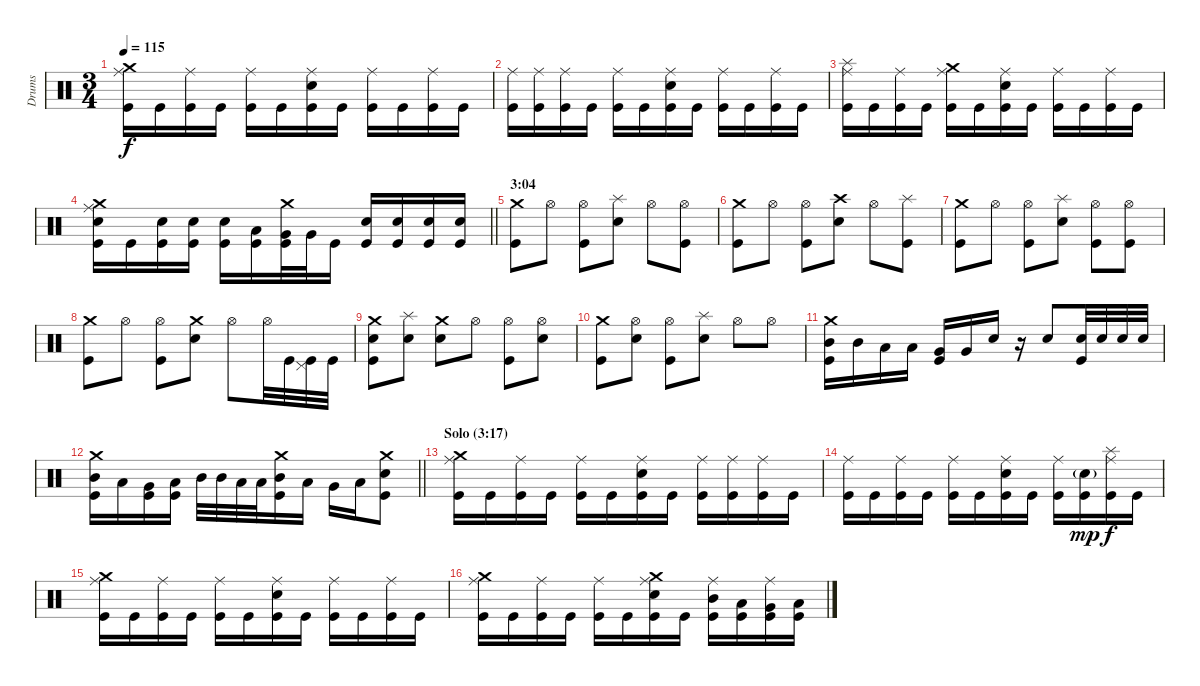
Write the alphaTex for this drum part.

\track ("Drums" "Drums") {instrument percussion}
\staff {score}
\articulation defaults
\ts (3 4)
\tempo 115
\clef neutral
\ks c
("Crash medium (hit)" "Ride (middle)" "Kick (hit)").16{dy f} "Kick (hit)".16 ("Ride (middle)" "Kick (hit)").16 "Kick (hit)".16 ("Ride (middle)" "Kick (hit)").16 "Kick (hit)".16 ("Ride (middle)" "Electric Snare (hit)" "Kick (hit)").16 "Kick (hit)".16 ("Ride (middle)" "Kick (hit)").16 "Kick (hit)".16 ("Ride (middle)" "Kick (hit)").16 "Kick (hit)".16 |
("Ride (middle)" "Kick (hit)").16 ("Ride (middle)" "Kick (hit)").16 ("Ride (middle)" "Kick (hit)").16 "Kick (hit)".16 ("Ride (middle)" "Kick (hit)").16 "Kick (hit)".16 ("Ride (middle)" "Electric Snare (hit)" "Kick (hit)").16 "Kick (hit)".16 ("Ride (middle)" "Kick (hit)").16 "Kick (hit)".16 ("Ride (middle)" "Kick (hit)").16 "Kick (hit)".16 |
("Splash (hit)" "Ride (middle)" "Kick (hit)").16 "Kick (hit)".16 ("Ride (middle)" "Kick (hit)").16 "Kick (hit)".16 ("Crash medium (hit)" "Ride (middle)" "Kick (hit)").16 "Kick (hit)".16 ("Ride (middle)" "Electric Snare (hit)" "Kick (hit)").16 "Kick (hit)".16 ("Ride (middle)" "Kick (hit)").16 "Kick (hit)".16 ("Ride (middle)" "Kick (hit)").16 "Kick (hit)".16 |
\barLineRight lightlight
("Crash medium (hit)" "Electric Snare (hit)" "Ride (middle)" "Kick (hit)").16 "Kick (hit)".16 ("Electric Snare (hit)" "Kick (hit)").16 ("Electric Snare (hit)" "Kick (hit)").16 ("Electric Snare (hit)" "Kick (hit)").16 ("Low Tom (hit)" "Kick (hit)").16 ("Crash medium (hit)" "Very Low Tom (hit)" "Kick (hit)").32 "Very Low Tom (hit)".32 "Kick (hit)".16 ("Electric Snare (hit)" "Kick (hit)").16 ("Electric Snare (hit)" "Kick (hit)").16 ("Electric Snare (hit)" "Kick (hit)").16 ("Electric Snare (hit)" "Kick (hit)").16 |
\section ("" "3:04")
("Crash medium (hit)" "Kick (hit)").8 "Hi-Hat (open)".8 ("Hi-Hat (open)" "Kick (hit)").8 ("Splash (hit)" "Electric Snare (hit)").8 "Hi-Hat (open)".8 ("Hi-Hat (open)" "Kick (hit)").8 |
("Crash medium (hit)" "Kick (hit)").8 "Hi-Hat (open)".8 ("Hi-Hat (open)" "Kick (hit)").8 ("Crash high (hit)" "Electric Snare (hit)").8 "Hi-Hat (open)".8 ("Splash (hit)" "Kick (hit)").8 |
("Crash medium (hit)" "Kick (hit)").8 "Hi-Hat (open)".8 ("Hi-Hat (open)" "Kick (hit)").8 ("Splash (hit)" "Electric Snare (hit)").8 ("Hi-Hat (open)" "Kick (hit)").8 ("Hi-Hat (open)" "Kick (hit)").8 |
("Crash medium (hit)" "Kick (hit)").8 "Hi-Hat (open)".8 ("Hi-Hat (open)" "Kick (hit)").8 ("Crash medium (hit)" "Electric Snare (hit)").8 "Hi-Hat (open)".8 "Hi-Hat (open)".32 "Kick (hit)".32 ("Pedal Hi-Hat (hit)" "Kick (hit)").32 "Kick (hit)".32 |
("Crash medium (hit)" "Electric Snare (hit)" "Kick (hit)").8 ("Splash (hit)" "Electric Snare (hit)").8 ("Crash medium (hit)" "Electric Snare (hit)").8 "Hi-Hat (open)".8 ("Hi-Hat (open)" "Kick (hit)").8 ("Hi-Hat (open)" "Electric Snare (hit)").8 |
("Crash medium (hit)" "Kick (hit)").8 ("Hi-Hat (open)" "Electric Snare (hit)").8 ("Hi-Hat (open)" "Kick (hit)").8 ("Splash (hit)" "Electric Snare (hit)").8 "Hi-Hat (open)".8 "Hi-Hat (open)".8 |
("Crash medium (hit)" "Mid Tom (hit)" "Kick (hit)").16 "Mid Tom (hit)".16 "Low Tom (hit)".16 "Low Tom (hit)".16 ("Very Low Tom (hit)" "Kick (hit)").16 "Very Low Tom (hit)".16 "Electric Snare (hit)".16 r.16 "Electric Snare (hit)".8 ("Electric Snare (hit)" "Kick (hit)").32 "Electric Snare (hit)".32 "Electric Snare (hit)".32 "Electric Snare (hit)".32 |
\barLineRight lightlight
("Crash medium (hit)" "Mid Tom (hit)" "Kick (hit)").16 "Low Tom (hit)".16 ("Very Low Tom (hit)" "Kick (hit)").16 ("Low Floor Tom (hit)" "Kick (hit)").16 "Mid Tom (hit)".32 "Mid Tom (hit)".32 "Low Tom (hit)".32 "Low Tom (hit)".32 ("Crash medium (hit)" "Mid Tom (hit)" "Kick (hit)").16 "Low Tom (hit)".16 "Very Low Tom (hit)".16 "Low Floor Tom (hit)".16 ("Crash medium (hit)" "Electric Snare (hit)" "Kick (hit)").8 |
\section ("" "Solo (3:17)")
("Crash medium (hit)" "Ride (middle)" "Kick (hit)").16 "Kick (hit)".16 ("Ride (middle)" "Kick (hit)").16 "Kick (hit)".16 ("Ride (middle)" "Kick (hit)").16 "Kick (hit)".16 ("Ride (middle)" "Electric Snare (hit)" "Kick (hit)").16 "Kick (hit)".16 ("Ride (middle)" "Kick (hit)").16 ("Ride (middle)" "Kick (hit)").16 ("Ride (middle)" "Kick (hit)").16 "Kick (hit)".16 |
("Ride (middle)" "Kick (hit)").16 "Kick (hit)".16 ("Ride (middle)" "Kick (hit)").16 "Kick (hit)".16 ("Ride (middle)" "Kick (hit)").16 "Kick (hit)".16 ("Ride (middle)" "Electric Snare (hit)" "Kick (hit)").16 "Kick (hit)".16 ("Ride (middle)" "Kick (hit)").16 ("Electric Snare (hit)"{g} "Kick (hit)").16{dy mp} ("Splash (hit)" "Ride (middle)" "Kick (hit)").16{dy f} "Kick (hit)".16 |
("Crash medium (hit)" "Ride (middle)" "Kick (hit)").16 "Kick (hit)".16 ("Ride (middle)" "Kick (hit)").16 "Kick (hit)".16 ("Ride (middle)" "Kick (hit)").16 "Kick (hit)".16 ("Ride (middle)" "Electric Snare (hit)" "Kick (hit)").16 "Kick (hit)".16 ("Ride (middle)" "Kick (hit)").16 "Kick (hit)".16 ("Ride (middle)" "Kick (hit)").16 "Kick (hit)".16 |
("Crash medium (hit)" "Ride (middle)" "Kick (hit)").16 "Kick (hit)".16 ("Ride (middle)" "Kick (hit)").16 "Kick (hit)".16 ("Ride (middle)" "Kick (hit)").16 "Kick (hit)".16 ("Crash medium (hit)" "Ride (middle)" "Electric Snare (hit)" "Kick (hit)").16 "Kick (hit)".16 ("Mid Tom (hit)" "Ride (middle)" "Kick (hit)").16 ("Low Tom (hit)" "Kick (hit)").16 ("Very Low Tom (hit)" "Ride (middle)" "Kick (hit)").16 ("Low Floor Tom (hit)" "Kick (hit)").16
